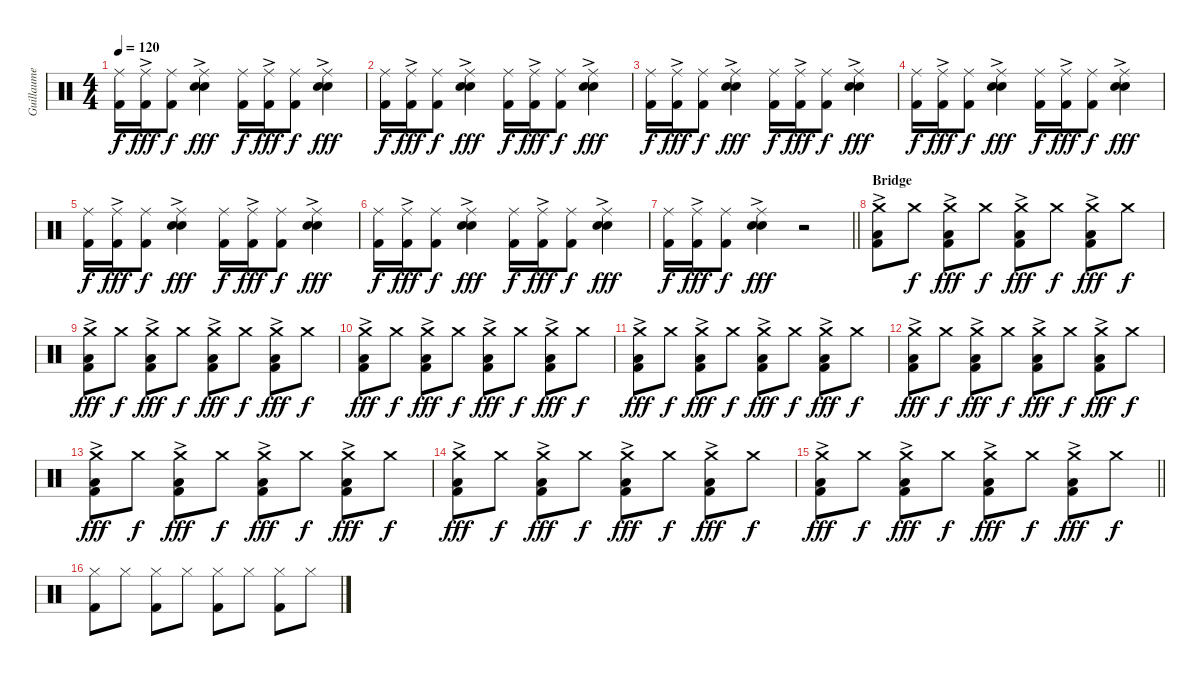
\track ("Guillaume (batterie)" "Guillaume ") {instrument percussion}
\staff {score}
\articulation defaults
\ts (4 4)
\tempo 120
\clef neutral
\ks c
("Ride (middle)" "Kick (hit) 2").16{dy f} ("Ride (middle)" "Kick (hit) 2"{ac}).16{dy fff} ("Ride (middle)" "Kick (hit) 2").8{dy f} ("Ride (middle)" "Snare (hit) 2"{ac} "Electric Snare (hit)"{ac}).4{dy fff} ("Ride (middle)" "Kick (hit) 2").16{dy f} ("Ride (middle)" "Kick (hit) 2"{ac}).16{dy fff} ("Ride (middle)" "Kick (hit) 2").8{dy f} ("Ride (middle)" "Snare (hit) 2"{ac} "Electric Snare (hit)"{ac}).4{dy fff} |
("Ride (middle)" "Kick (hit) 2").16{dy f} ("Ride (middle)" "Kick (hit) 2"{ac}).16{dy fff} ("Ride (middle)" "Kick (hit) 2").8{dy f} ("Ride (middle)" "Snare (hit) 2"{ac} "Electric Snare (hit)"{ac}).4{dy fff} ("Ride (middle)" "Kick (hit) 2").16{dy f} ("Ride (middle)" "Kick (hit) 2"{ac}).16{dy fff} ("Ride (middle)" "Kick (hit) 2").8{dy f} ("Ride (middle)" "Snare (hit) 2"{ac} "Electric Snare (hit)"{ac}).4{dy fff} |
("Ride (middle)" "Kick (hit) 2").16{dy f} ("Ride (middle)" "Kick (hit) 2"{ac}).16{dy fff} ("Ride (middle)" "Kick (hit) 2").8{dy f} ("Ride (middle)" "Snare (hit) 2"{ac} "Electric Snare (hit)"{ac}).4{dy fff} ("Ride (middle)" "Kick (hit) 2").16{dy f} ("Ride (middle)" "Kick (hit) 2"{ac}).16{dy fff} ("Ride (middle)" "Kick (hit) 2").8{dy f} ("Ride (middle)" "Snare (hit) 2"{ac} "Electric Snare (hit)"{ac}).4{dy fff} |
("Ride (middle)" "Kick (hit) 2").16{dy f} ("Ride (middle)" "Kick (hit) 2"{ac}).16{dy fff} ("Ride (middle)" "Kick (hit) 2").8{dy f} ("Ride (middle)" "Snare (hit) 2"{ac} "Electric Snare (hit)"{ac}).4{dy fff} ("Ride (middle)" "Kick (hit) 2").16{dy f} ("Ride (middle)" "Kick (hit) 2"{ac}).16{dy fff} ("Ride (middle)" "Kick (hit) 2").8{dy f} ("Ride (middle)" "Snare (hit) 2"{ac} "Electric Snare (hit)"{ac}).4{dy fff} |
("Ride (middle)" "Kick (hit) 2").16{dy f} ("Ride (middle)" "Kick (hit) 2"{ac}).16{dy fff} ("Ride (middle)" "Kick (hit) 2").8{dy f} ("Ride (middle)" "Snare (hit) 2"{ac} "Electric Snare (hit)"{ac}).4{dy fff} ("Ride (middle)" "Kick (hit) 2").16{dy f} ("Ride (middle)" "Kick (hit) 2"{ac}).16{dy fff} ("Ride (middle)" "Kick (hit) 2").8{dy f} ("Ride (middle)" "Snare (hit) 2"{ac} "Electric Snare (hit)"{ac}).4{dy fff} |
("Ride (middle)" "Kick (hit) 2").16{dy f} ("Ride (middle)" "Kick (hit) 2"{ac}).16{dy fff} ("Ride (middle)" "Kick (hit) 2").8{dy f} ("Ride (middle)" "Snare (hit) 2"{ac} "Electric Snare (hit)"{ac}).4{dy fff} ("Ride (middle)" "Kick (hit) 2").16{dy f} ("Ride (middle)" "Kick (hit) 2"{ac}).16{dy fff} ("Ride (middle)" "Kick (hit) 2").8{dy f} ("Ride (middle)" "Snare (hit) 2"{ac} "Electric Snare (hit)"{ac}).4{dy fff} |
\barLineRight lightlight
("Ride (middle)" "Kick (hit) 2").16{dy f} ("Ride (middle)" "Kick (hit) 2"{ac}).16{dy fff} ("Ride (middle)" "Kick (hit) 2").8{dy f} ("Ride (middle)" "Snare (hit) 2"{ac} "Electric Snare (hit)"{ac}).4{dy fff} r.2 |
\section ("" "Bridge")
("Low Tom (hit)"{ac} "Crash medium (hit)" "Kick (hit) 2"{ac}).8 "Crash medium (hit)".8{dy f} ("Low Tom (hit)"{ac} "Crash medium (hit)" "Kick (hit) 2"{ac}).8{dy fff} "Crash medium (hit)".8{dy f} ("Low Tom (hit)"{ac} "Crash medium (hit)" "Kick (hit) 2"{ac}).8{dy fff} "Crash medium (hit)".8{dy f} ("Low Tom (hit)"{ac} "Crash medium (hit)" "Kick (hit) 2"{ac}).8{dy fff} "Crash medium (hit)".8{dy f} |
("Low Tom (hit)"{ac} "Crash medium (hit)" "Kick (hit) 2"{ac}).8{dy fff} "Crash medium (hit)".8{dy f} ("Low Tom (hit)"{ac} "Crash medium (hit)" "Kick (hit) 2"{ac}).8{dy fff} "Crash medium (hit)".8{dy f} ("Low Tom (hit)"{ac} "Crash medium (hit)" "Kick (hit) 2"{ac}).8{dy fff} "Crash medium (hit)".8{dy f} ("Low Tom (hit)"{ac} "Crash medium (hit)" "Kick (hit) 2"{ac}).8{dy fff} "Crash medium (hit)".8{dy f} |
("Low Tom (hit)"{ac} "Crash medium (hit)" "Kick (hit) 2"{ac}).8{dy fff} "Crash medium (hit)".8{dy f} ("Low Tom (hit)"{ac} "Crash medium (hit)" "Kick (hit) 2"{ac}).8{dy fff} "Crash medium (hit)".8{dy f} ("Low Tom (hit)"{ac} "Crash medium (hit)" "Kick (hit) 2"{ac}).8{dy fff} "Crash medium (hit)".8{dy f} ("Low Tom (hit)"{ac} "Crash medium (hit)" "Kick (hit) 2"{ac}).8{dy fff} "Crash medium (hit)".8{dy f} |
("Low Tom (hit)"{ac} "Crash medium (hit)" "Kick (hit) 2"{ac}).8{dy fff} "Crash medium (hit)".8{dy f} ("Low Tom (hit)"{ac} "Crash medium (hit)" "Kick (hit) 2"{ac}).8{dy fff} "Crash medium (hit)".8{dy f} ("Low Tom (hit)"{ac} "Crash medium (hit)" "Kick (hit) 2"{ac}).8{dy fff} "Crash medium (hit)".8{dy f} ("Low Tom (hit)"{ac} "Crash medium (hit)" "Kick (hit) 2"{ac}).8{dy fff} "Crash medium (hit)".8{dy f} |
("Low Tom (hit)"{ac} "Crash medium (hit)" "Kick (hit) 2"{ac}).8{dy fff} "Crash medium (hit)".8{dy f} ("Low Tom (hit)"{ac} "Crash medium (hit)" "Kick (hit) 2"{ac}).8{dy fff} "Crash medium (hit)".8{dy f} ("Low Tom (hit)"{ac} "Crash medium (hit)" "Kick (hit) 2"{ac}).8{dy fff} "Crash medium (hit)".8{dy f} ("Low Tom (hit)"{ac} "Crash medium (hit)" "Kick (hit) 2"{ac}).8{dy fff} "Crash medium (hit)".8{dy f} |
("Low Tom (hit)"{ac} "Crash medium (hit)" "Kick (hit) 2"{ac}).8{dy fff} "Crash medium (hit)".8{dy f} ("Low Tom (hit)"{ac} "Crash medium (hit)" "Kick (hit) 2"{ac}).8{dy fff} "Crash medium (hit)".8{dy f} ("Low Tom (hit)"{ac} "Crash medium (hit)" "Kick (hit) 2"{ac}).8{dy fff} "Crash medium (hit)".8{dy f} ("Low Tom (hit)"{ac} "Crash medium (hit)" "Kick (hit) 2"{ac}).8{dy fff} "Crash medium (hit)".8{dy f} |
("Low Tom (hit)"{ac} "Crash medium (hit)" "Kick (hit) 2"{ac}).8{dy fff} "Crash medium (hit)".8{dy f} ("Low Tom (hit)"{ac} "Crash medium (hit)" "Kick (hit) 2"{ac}).8{dy fff} "Crash medium (hit)".8{dy f} ("Low Tom (hit)"{ac} "Crash medium (hit)" "Kick (hit) 2"{ac}).8{dy fff} "Crash medium (hit)".8{dy f} ("Low Tom (hit)"{ac} "Crash medium (hit)" "Kick (hit) 2"{ac}).8{dy fff} "Crash medium (hit)".8{dy f} |
\barLineRight lightlight
("Low Tom (hit)"{ac} "Crash medium (hit)" "Kick (hit) 2"{ac}).8{dy fff} "Crash medium (hit)".8{dy f} ("Low Tom (hit)"{ac} "Crash medium (hit)" "Kick (hit) 2"{ac}).8{dy fff} "Crash medium (hit)".8{dy f} ("Low Tom (hit)"{ac} "Crash medium (hit)" "Kick (hit) 2"{ac}).8{dy fff} "Crash medium (hit)".8{dy f} ("Low Tom (hit)"{ac} "Crash medium (hit)" "Kick (hit) 2"{ac}).8{dy fff} "Crash medium (hit)".8{dy f} |
("Hi-Hat (closed)" "Kick (hit) 2").8{volume 9} "Hi-Hat (closed)".8 ("Hi-Hat (closed)" "Kick (hit) 2").8 "Hi-Hat (closed)".8 ("Hi-Hat (closed)" "Kick (hit) 2").8 "Hi-Hat (closed)".8 ("Hi-Hat (closed)" "Kick (hit) 2").8 "Hi-Hat (closed)".8
